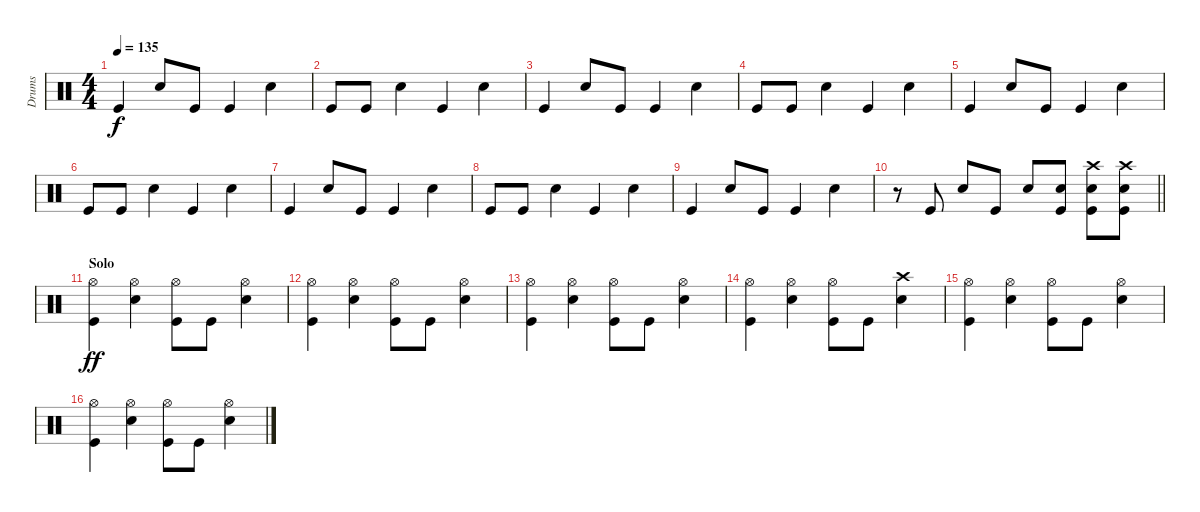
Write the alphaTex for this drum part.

\track ("Drums" "Drums") {instrument percussion}
\staff {score}
\articulation defaults
\ts (4 4)
\tempo 135
\clef neutral
\ks c "Kick (hit)".4{dy f} "Snare (hit) 2".8 "Kick (hit)".8 "Kick (hit)".4 "Snare (hit) 2".4
|
"Kick (hit)".8 "Kick (hit)".8 "Snare (hit) 2".4 "Kick (hit)".4 "Snare (hit) 2".4 |
"Kick (hit)".4 "Snare (hit) 2".8 "Kick (hit)".8 "Kick (hit)".4 "Snare (hit) 2".4 |
"Kick (hit)".8 "Kick (hit)".8 "Snare (hit) 2".4 "Kick (hit)".4 "Snare (hit) 2".4 |
"Kick (hit)".4 "Snare (hit) 2".8 "Kick (hit)".8 "Kick (hit)".4 "Snare (hit) 2".4 |
"Kick (hit)".8 "Kick (hit)".8 "Snare (hit) 2".4 "Kick (hit)".4 "Snare (hit) 2".4 |
"Kick (hit)".4 "Snare (hit) 2".8 "Kick (hit)".8 "Kick (hit)".4 "Snare (hit) 2".4 |
"Kick (hit)".8 "Kick (hit)".8 "Snare (hit) 2".4 "Kick (hit)".4 "Snare (hit) 2".4 |
"Kick (hit)".4 "Snare (hit) 2".8 "Kick (hit)".8 "Kick (hit)".4 "Snare (hit) 2".4 |
\barLineRight lightlight
r.8 "Kick (hit)".8 "Snare (hit) 2".8 "Kick (hit)".8 "Snare (hit) 2".8 ("Kick (hit)" "Snare (hit) 2").8 ("Kick (hit)" "Snare (hit) 2" "Crash high (hit)").8 ("Kick (hit)" "Snare (hit) 2" "Crash high (hit)").8 |
\section ("" "Solo")
("Kick (hit)" "Hi-Hat (open)").4{dy ff} ("Snare (hit) 2" "Hi-Hat (open)").4 ("Kick (hit)" "Hi-Hat (open)").8 "Kick (hit)".8 ("Snare (hit) 2" "Hi-Hat (open)").4 |
("Kick (hit)" "Hi-Hat (open)").4 ("Snare (hit) 2" "Hi-Hat (open)").4 ("Kick (hit)" "Hi-Hat (open)").8 "Kick (hit)".8 ("Snare (hit) 2" "Hi-Hat (open)").4 |
("Kick (hit)" "Hi-Hat (open)").4 ("Snare (hit) 2" "Hi-Hat (open)").4 ("Kick (hit)" "Hi-Hat (open)").8 "Kick (hit)".8 ("Snare (hit) 2" "Hi-Hat (open)").4 |
("Kick (hit)" "Hi-Hat (open)").4 ("Snare (hit) 2" "Hi-Hat (open)").4 ("Kick (hit)" "Hi-Hat (open)").8 "Kick (hit)".8 ("Snare (hit) 2" "Crash high (hit)").4 |
("Kick (hit)" "Hi-Hat (open)").4 ("Snare (hit) 2" "Hi-Hat (open)").4 ("Kick (hit)" "Hi-Hat (open)").8 "Kick (hit)".8 ("Snare (hit) 2" "Hi-Hat (open)").4 |
("Kick (hit)" "Hi-Hat (open)").4 ("Snare (hit) 2" "Hi-Hat (open)").4 ("Kick (hit)" "Hi-Hat (open)").8 "Kick (hit)".8 ("Snare (hit) 2" "Hi-Hat (open)").4
